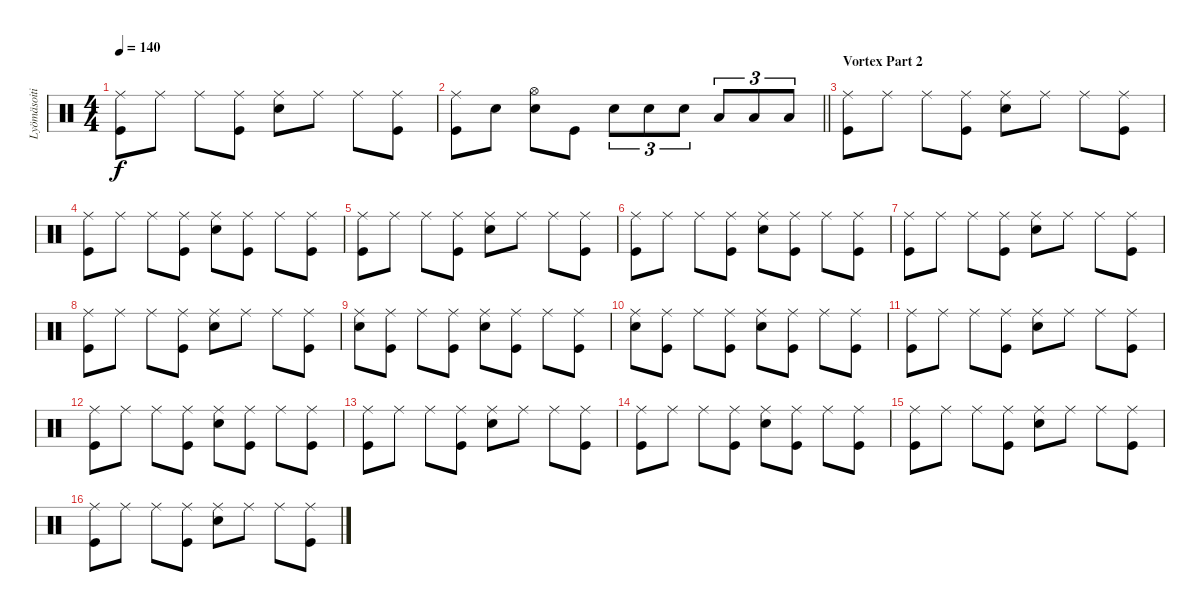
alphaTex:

\track ("Lyömäsoitin" "Lyömäsoiti") {instrument percussion}
\staff {score}
\articulation defaults
\ts (4 4)
\tempo 140
\clef neutral
\ks c
("Ride (middle)" "Kick (hit)").8{dy f} "Ride (middle)".8 "Ride (middle)".8 ("Ride (middle)" "Kick (hit)").8 ("Ride (middle)" "Electric Snare (hit)").8 "Ride (middle)".8 "Ride (middle)".8 ("Ride (middle)" "Kick (hit)").8 |
\barLineRight lightlight
("Ride (middle)" "Kick (hit)").8 "Electric Snare (hit)".8 ("Electric Snare (hit)" "Hi-Hat (open)").8 "Kick (hit)".8 "Electric Snare (hit)".8{tu (3 2)} "Electric Snare (hit)".8{tu (3 2)} "Electric Snare (hit)".8{tu (3 2)} "Low Tom (hit)".8{tu (3 2)} "Low Tom (hit)".8{tu (3 2)} "Low Tom (hit)".8{tu (3 2)} |
\section ("" "Vortex Part 2")
("Ride (middle)" "Kick (hit)").8 "Ride (middle)".8 "Ride (middle)".8 ("Ride (middle)" "Kick (hit)").8 ("Ride (middle)" "Electric Snare (hit)").8 "Ride (middle)".8 "Ride (middle)".8 ("Ride (middle)" "Kick (hit)").8 |
("Ride (middle)" "Kick (hit)").8 "Ride (middle)".8 "Ride (middle)".8 ("Ride (middle)" "Kick (hit)").8 ("Ride (middle)" "Electric Snare (hit)").8 ("Ride (middle)" "Kick (hit)").8 "Ride (middle)".8 ("Ride (middle)" "Kick (hit)").8 |
("Ride (middle)" "Kick (hit)").8 "Ride (middle)".8 "Ride (middle)".8 ("Ride (middle)" "Kick (hit)").8 ("Ride (middle)" "Electric Snare (hit)").8 "Ride (middle)".8 "Ride (middle)".8 ("Ride (middle)" "Kick (hit)").8 |
("Ride (middle)" "Kick (hit)").8 "Ride (middle)".8 "Ride (middle)".8 ("Ride (middle)" "Kick (hit)").8 ("Ride (middle)" "Electric Snare (hit)").8 ("Ride (middle)" "Kick (hit)").8 "Ride (middle)".8 ("Ride (middle)" "Kick (hit)").8 |
("Ride (middle)" "Kick (hit)").8 "Ride (middle)".8 "Ride (middle)".8 ("Ride (middle)" "Kick (hit)").8 ("Ride (middle)" "Electric Snare (hit)").8 "Ride (middle)".8 "Ride (middle)".8 ("Ride (middle)" "Kick (hit)").8 |
("Ride (middle)" "Kick (hit)").8 "Ride (middle)".8 "Ride (middle)".8 ("Ride (middle)" "Kick (hit)").8 ("Ride (middle)" "Electric Snare (hit)").8 "Ride (middle)".8 "Ride (middle)".8 ("Ride (middle)" "Kick (hit)").8 |
("Ride (middle)" "Electric Snare (hit)").8 ("Ride (middle)" "Kick (hit)").8 "Ride (middle)".8 ("Ride (middle)" "Kick (hit)").8 ("Ride (middle)" "Electric Snare (hit)").8 ("Ride (middle)" "Kick (hit)").8 "Ride (middle)".8 ("Ride (middle)" "Kick (hit)").8 |
("Ride (middle)" "Electric Snare (hit)").8 ("Ride (middle)" "Kick (hit)").8 "Ride (middle)".8 ("Ride (middle)" "Kick (hit)").8 ("Ride (middle)" "Electric Snare (hit)").8 ("Ride (middle)" "Kick (hit)").8 "Ride (middle)".8 ("Ride (middle)" "Kick (hit)").8 |
("Ride (middle)" "Kick (hit)").8 "Ride (middle)".8 "Ride (middle)".8 ("Ride (middle)" "Kick (hit)").8 ("Ride (middle)" "Electric Snare (hit)").8 "Ride (middle)".8 "Ride (middle)".8 ("Ride (middle)" "Kick (hit)").8 |
("Ride (middle)" "Kick (hit)").8 "Ride (middle)".8 "Ride (middle)".8 ("Ride (middle)" "Kick (hit)").8 ("Ride (middle)" "Electric Snare (hit)").8 ("Ride (middle)" "Kick (hit)").8 "Ride (middle)".8 ("Ride (middle)" "Kick (hit)").8 |
("Ride (middle)" "Kick (hit)").8 "Ride (middle)".8 "Ride (middle)".8 ("Ride (middle)" "Kick (hit)").8 ("Ride (middle)" "Electric Snare (hit)").8 "Ride (middle)".8 "Ride (middle)".8 ("Ride (middle)" "Kick (hit)").8 |
("Ride (middle)" "Kick (hit)").8 "Ride (middle)".8 "Ride (middle)".8 ("Ride (middle)" "Kick (hit)").8 ("Ride (middle)" "Electric Snare (hit)").8 ("Ride (middle)" "Kick (hit)").8 "Ride (middle)".8 ("Ride (middle)" "Kick (hit)").8 |
("Ride (middle)" "Kick (hit)").8 "Ride (middle)".8 "Ride (middle)".8 ("Ride (middle)" "Kick (hit)").8 ("Ride (middle)" "Electric Snare (hit)").8 "Ride (middle)".8 "Ride (middle)".8 ("Ride (middle)" "Kick (hit)").8 |
("Ride (middle)" "Kick (hit)").8 "Ride (middle)".8 "Ride (middle)".8 ("Ride (middle)" "Kick (hit)").8 ("Ride (middle)" "Electric Snare (hit)").8 "Ride (middle)".8 "Ride (middle)".8 ("Ride (middle)" "Kick (hit)").8
